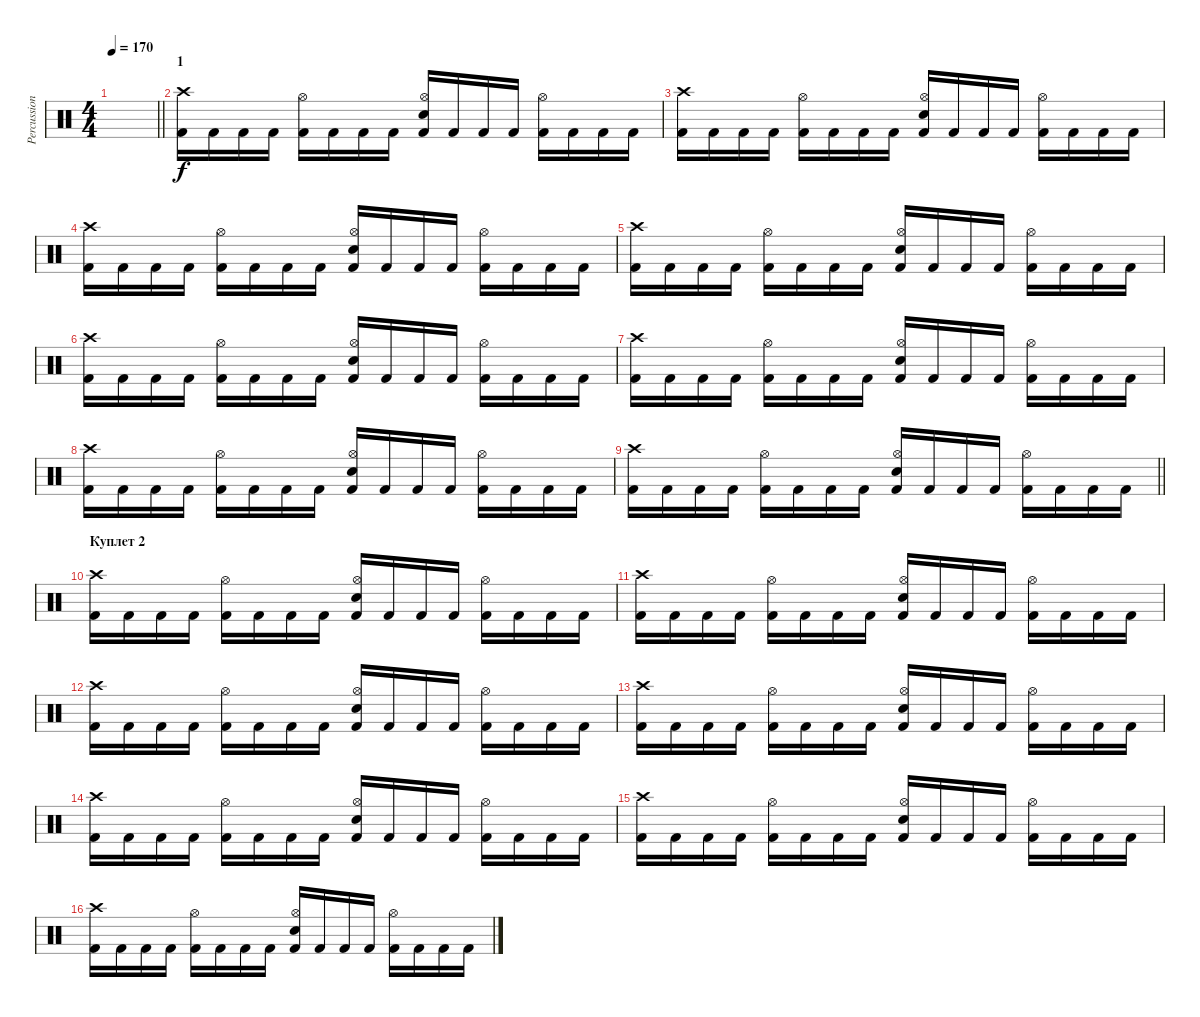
\track ("Percussion" "Percussion") {instrument percussion}
\staff {score}
\articulation defaults
\ts (4 4)
\tempo 170
\clef neutral
\barLineRight lightlight
\ks c
|
\section ("" "1")
("Crash high (hit)" "Kick (hit) 2").16 "Kick (hit) 2".16 "Kick (hit) 2".16 "Kick (hit) 2".16 ("Hi-Hat (open)" "Kick (hit) 2").16 "Kick (hit) 2".16 "Kick (hit) 2".16 "Kick (hit) 2".16 ("Hi-Hat (open)" "Snare (hit) 2" "Kick (hit) 2").16 "Kick (hit) 2".16 "Kick (hit) 2".16 "Kick (hit) 2".16 ("Hi-Hat (open)" "Kick (hit) 2").16 "Kick (hit) 2".16 "Kick (hit) 2".16 "Kick (hit) 2".16 |
("Crash high (hit)" "Kick (hit) 2").16 "Kick (hit) 2".16 "Kick (hit) 2".16 "Kick (hit) 2".16 ("Hi-Hat (open)" "Kick (hit) 2").16 "Kick (hit) 2".16 "Kick (hit) 2".16 "Kick (hit) 2".16 ("Hi-Hat (open)" "Snare (hit) 2" "Kick (hit) 2").16 "Kick (hit) 2".16 "Kick (hit) 2".16 "Kick (hit) 2".16 ("Hi-Hat (open)" "Kick (hit) 2").16 "Kick (hit) 2".16 "Kick (hit) 2".16 "Kick (hit) 2".16 |
("Crash high (hit)" "Kick (hit) 2").16 "Kick (hit) 2".16 "Kick (hit) 2".16 "Kick (hit) 2".16 ("Hi-Hat (open)" "Kick (hit) 2").16 "Kick (hit) 2".16 "Kick (hit) 2".16 "Kick (hit) 2".16 ("Hi-Hat (open)" "Snare (hit) 2" "Kick (hit) 2").16 "Kick (hit) 2".16 "Kick (hit) 2".16 "Kick (hit) 2".16 ("Hi-Hat (open)" "Kick (hit) 2").16 "Kick (hit) 2".16 "Kick (hit) 2".16 "Kick (hit) 2".16 |
("Crash high (hit)" "Kick (hit) 2").16 "Kick (hit) 2".16 "Kick (hit) 2".16 "Kick (hit) 2".16 ("Hi-Hat (open)" "Kick (hit) 2").16 "Kick (hit) 2".16 "Kick (hit) 2".16 "Kick (hit) 2".16 ("Hi-Hat (open)" "Snare (hit) 2" "Kick (hit) 2").16 "Kick (hit) 2".16 "Kick (hit) 2".16 "Kick (hit) 2".16 ("Hi-Hat (open)" "Kick (hit) 2").16 "Kick (hit) 2".16 "Kick (hit) 2".16 "Kick (hit) 2".16 |
("Crash high (hit)" "Kick (hit) 2").16 "Kick (hit) 2".16 "Kick (hit) 2".16 "Kick (hit) 2".16 ("Hi-Hat (open)" "Kick (hit) 2").16 "Kick (hit) 2".16 "Kick (hit) 2".16 "Kick (hit) 2".16 ("Hi-Hat (open)" "Snare (hit) 2" "Kick (hit) 2").16 "Kick (hit) 2".16 "Kick (hit) 2".16 "Kick (hit) 2".16 ("Hi-Hat (open)" "Kick (hit) 2").16 "Kick (hit) 2".16 "Kick (hit) 2".16 "Kick (hit) 2".16 |
("Crash high (hit)" "Kick (hit) 2").16 "Kick (hit) 2".16 "Kick (hit) 2".16 "Kick (hit) 2".16 ("Hi-Hat (open)" "Kick (hit) 2").16 "Kick (hit) 2".16 "Kick (hit) 2".16 "Kick (hit) 2".16 ("Hi-Hat (open)" "Snare (hit) 2" "Kick (hit) 2").16 "Kick (hit) 2".16 "Kick (hit) 2".16 "Kick (hit) 2".16 ("Hi-Hat (open)" "Kick (hit) 2").16 "Kick (hit) 2".16 "Kick (hit) 2".16 "Kick (hit) 2".16 |
("Crash high (hit)" "Kick (hit) 2").16 "Kick (hit) 2".16 "Kick (hit) 2".16 "Kick (hit) 2".16 ("Hi-Hat (open)" "Kick (hit) 2").16 "Kick (hit) 2".16 "Kick (hit) 2".16 "Kick (hit) 2".16 ("Hi-Hat (open)" "Snare (hit) 2" "Kick (hit) 2").16 "Kick (hit) 2".16 "Kick (hit) 2".16 "Kick (hit) 2".16 ("Hi-Hat (open)" "Kick (hit) 2").16 "Kick (hit) 2".16 "Kick (hit) 2".16 "Kick (hit) 2".16 |
\barLineRight lightlight
("Crash high (hit)" "Kick (hit) 2").16 "Kick (hit) 2".16 "Kick (hit) 2".16 "Kick (hit) 2".16 ("Hi-Hat (open)" "Kick (hit) 2").16 "Kick (hit) 2".16 "Kick (hit) 2".16 "Kick (hit) 2".16 ("Hi-Hat (open)" "Snare (hit) 2" "Kick (hit) 2").16 "Kick (hit) 2".16 "Kick (hit) 2".16 "Kick (hit) 2".16 ("Hi-Hat (open)" "Kick (hit) 2").16 "Kick (hit) 2".16 "Kick (hit) 2".16 "Kick (hit) 2".16 |
\section ("" "Куплет 2")
("Crash high (hit)" "Kick (hit) 2").16 "Kick (hit) 2".16 "Kick (hit) 2".16 "Kick (hit) 2".16 ("Hi-Hat (open)" "Kick (hit) 2").16 "Kick (hit) 2".16 "Kick (hit) 2".16 "Kick (hit) 2".16 ("Hi-Hat (open)" "Snare (hit) 2" "Kick (hit) 2").16 "Kick (hit) 2".16 "Kick (hit) 2".16 "Kick (hit) 2".16 ("Hi-Hat (open)" "Kick (hit) 2").16 "Kick (hit) 2".16 "Kick (hit) 2".16 "Kick (hit) 2".16 |
("Crash high (hit)" "Kick (hit) 2").16 "Kick (hit) 2".16 "Kick (hit) 2".16 "Kick (hit) 2".16 ("Hi-Hat (open)" "Kick (hit) 2").16 "Kick (hit) 2".16 "Kick (hit) 2".16 "Kick (hit) 2".16 ("Hi-Hat (open)" "Snare (hit) 2" "Kick (hit) 2").16 "Kick (hit) 2".16 "Kick (hit) 2".16 "Kick (hit) 2".16 ("Hi-Hat (open)" "Kick (hit) 2").16 "Kick (hit) 2".16 "Kick (hit) 2".16 "Kick (hit) 2".16 |
("Crash high (hit)" "Kick (hit) 2").16 "Kick (hit) 2".16 "Kick (hit) 2".16 "Kick (hit) 2".16 ("Hi-Hat (open)" "Kick (hit) 2").16 "Kick (hit) 2".16 "Kick (hit) 2".16 "Kick (hit) 2".16 ("Hi-Hat (open)" "Snare (hit) 2" "Kick (hit) 2").16 "Kick (hit) 2".16 "Kick (hit) 2".16 "Kick (hit) 2".16 ("Hi-Hat (open)" "Kick (hit) 2").16 "Kick (hit) 2".16 "Kick (hit) 2".16 "Kick (hit) 2".16 |
("Crash high (hit)" "Kick (hit) 2").16 "Kick (hit) 2".16 "Kick (hit) 2".16 "Kick (hit) 2".16 ("Hi-Hat (open)" "Kick (hit) 2").16 "Kick (hit) 2".16 "Kick (hit) 2".16 "Kick (hit) 2".16 ("Hi-Hat (open)" "Snare (hit) 2" "Kick (hit) 2").16 "Kick (hit) 2".16 "Kick (hit) 2".16 "Kick (hit) 2".16 ("Hi-Hat (open)" "Kick (hit) 2").16 "Kick (hit) 2".16 "Kick (hit) 2".16 "Kick (hit) 2".16 |
("Crash high (hit)" "Kick (hit) 2").16 "Kick (hit) 2".16 "Kick (hit) 2".16 "Kick (hit) 2".16 ("Hi-Hat (open)" "Kick (hit) 2").16 "Kick (hit) 2".16 "Kick (hit) 2".16 "Kick (hit) 2".16 ("Hi-Hat (open)" "Snare (hit) 2" "Kick (hit) 2").16 "Kick (hit) 2".16 "Kick (hit) 2".16 "Kick (hit) 2".16 ("Hi-Hat (open)" "Kick (hit) 2").16 "Kick (hit) 2".16 "Kick (hit) 2".16 "Kick (hit) 2".16 |
("Crash high (hit)" "Kick (hit) 2").16 "Kick (hit) 2".16 "Kick (hit) 2".16 "Kick (hit) 2".16 ("Hi-Hat (open)" "Kick (hit) 2").16 "Kick (hit) 2".16 "Kick (hit) 2".16 "Kick (hit) 2".16 ("Hi-Hat (open)" "Snare (hit) 2" "Kick (hit) 2").16 "Kick (hit) 2".16 "Kick (hit) 2".16 "Kick (hit) 2".16 ("Hi-Hat (open)" "Kick (hit) 2").16 "Kick (hit) 2".16 "Kick (hit) 2".16 "Kick (hit) 2".16 |
("Crash high (hit)" "Kick (hit) 2").16 "Kick (hit) 2".16 "Kick (hit) 2".16 "Kick (hit) 2".16 ("Hi-Hat (open)" "Kick (hit) 2").16 "Kick (hit) 2".16 "Kick (hit) 2".16 "Kick (hit) 2".16 ("Hi-Hat (open)" "Snare (hit) 2" "Kick (hit) 2").16 "Kick (hit) 2".16 "Kick (hit) 2".16 "Kick (hit) 2".16 ("Hi-Hat (open)" "Kick (hit) 2").16 "Kick (hit) 2".16 "Kick (hit) 2".16 "Kick (hit) 2".16
